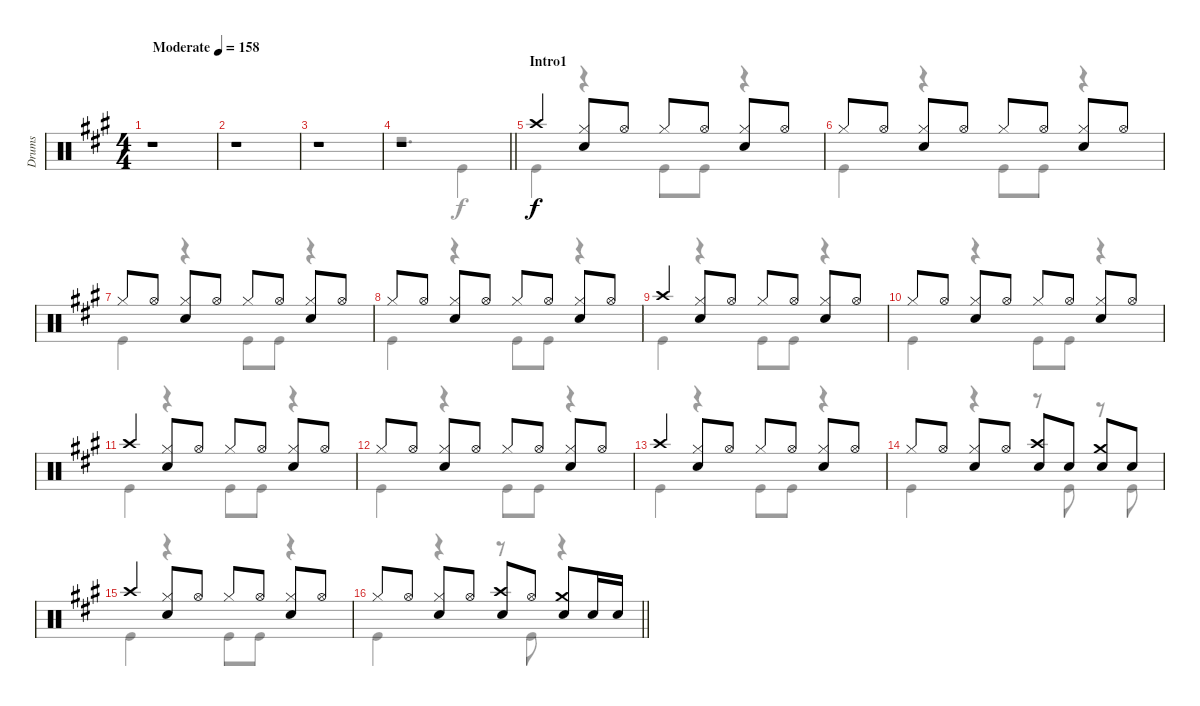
\track ("Drums" "Drums") {instrument percussion}
\staff {score}
\articulation defaults
\voice
\ts (4 4)
\tempo (158 "Moderate")
\clef neutral
\ks a
r.1{dy f} |
r.1 |
r.1 |
\barLineRight lightlight
r.1 |
\section ("" "Intro1")
"Crash high (hit)".4 ("Hi-Hat (closed)" "Snare (hit) 2").8 "Hi-Hat (open)".8 "Hi-Hat (closed)".8 "Hi-Hat (open)".8 ("Hi-Hat (closed)" "Snare (hit) 2").8 "Hi-Hat (open)".8 |
"Hi-Hat (closed)".8 "Hi-Hat (open)".8 ("Hi-Hat (closed)" "Snare (hit) 2").8 "Hi-Hat (open)".8 "Hi-Hat (closed)".8 "Hi-Hat (open)".8 ("Hi-Hat (closed)" "Snare (hit) 2").8 "Hi-Hat (open)".8 |
"Hi-Hat (closed)".8 "Hi-Hat (open)".8 ("Hi-Hat (closed)" "Snare (hit) 2").8 "Hi-Hat (open)".8 "Hi-Hat (closed)".8 "Hi-Hat (open)".8 ("Hi-Hat (closed)" "Snare (hit) 2").8 "Hi-Hat (open)".8 |
"Hi-Hat (closed)".8 "Hi-Hat (open)".8 ("Hi-Hat (closed)" "Snare (hit) 2").8 "Hi-Hat (open)".8 "Hi-Hat (closed)".8 "Hi-Hat (open)".8 ("Hi-Hat (closed)" "Snare (hit) 2").8 "Hi-Hat (open)".8 |
"Crash high (hit)".4 ("Hi-Hat (closed)" "Snare (hit) 2").8 "Hi-Hat (open)".8 "Hi-Hat (closed)".8 "Hi-Hat (open)".8 ("Hi-Hat (closed)" "Snare (hit) 2").8 "Hi-Hat (open)".8 |
"Hi-Hat (closed)".8 "Hi-Hat (open)".8 ("Hi-Hat (closed)" "Snare (hit) 2").8 "Hi-Hat (open)".8 "Hi-Hat (closed)".8 "Hi-Hat (open)".8 ("Hi-Hat (closed)" "Snare (hit) 2").8 "Hi-Hat (open)".8 |
"Crash high (hit)".4 ("Hi-Hat (closed)" "Snare (hit) 2").8 "Hi-Hat (open)".8 "Hi-Hat (closed)".8 "Hi-Hat (open)".8 ("Hi-Hat (closed)" "Snare (hit) 2").8 "Hi-Hat (open)".8 |
"Hi-Hat (closed)".8 "Hi-Hat (open)".8 ("Hi-Hat (closed)" "Snare (hit) 2").8 "Hi-Hat (open)".8 "Hi-Hat (closed)".8 "Hi-Hat (open)".8 ("Hi-Hat (closed)" "Snare (hit) 2").8 "Hi-Hat (open)".8 |
"Crash high (hit)".4 ("Hi-Hat (closed)" "Snare (hit) 2").8 "Hi-Hat (open)".8 "Hi-Hat (closed)".8 "Hi-Hat (open)".8 ("Hi-Hat (closed)" "Snare (hit) 2").8 "Hi-Hat (open)".8 |
"Hi-Hat (closed)".8 "Hi-Hat (open)".8 ("Hi-Hat (closed)" "Snare (hit) 2").8 "Hi-Hat (open)".8 ("Crash high (hit)" "Snare (hit) 2").8 "Snare (hit) 2".8 ("Crash medium (hit)" "Snare (hit) 2").8 "Snare (hit) 2".8 |
"Crash high (hit)".4 ("Hi-Hat (closed)" "Snare (hit) 2").8 "Hi-Hat (open)".8 "Hi-Hat (closed)".8 "Hi-Hat (open)".8 ("Hi-Hat (closed)" "Snare (hit) 2").8 "Hi-Hat (open)".8 |
\barLineRight lightlight "Hi-Hat (closed)".8 "Hi-Hat (open)".8
("Hi-Hat (closed)" "Snare (hit) 2").8 "Hi-Hat (open)".8 ("Crash high (hit)" "Snare (hit) 2").8 "Hi-Hat (open)".8 ("Crash medium (hit)" "Snare (hit) 2").8 "Snare (hit) 2".16 "Snare (hit) 2".16
\voice
\clef neutral
\ottava regular
\simile none
\ks a
r.1{dy f} |
r.1 |
r.1 |
\barLineRight lightlight
r.2{d} "Kick (hit)".4 |
"Kick (hit)".4 r.4 "Kick (hit)".8 "Kick (hit)".8 r.4 |
"Kick (hit)".4 r.4 "Kick (hit)".8 "Kick (hit)".8 r.4 |
"Kick (hit)".4 r.4 "Kick (hit)".8 "Kick (hit)".8 r.4 |
"Kick (hit)".4 r.4 "Kick (hit)".8 "Kick (hit)".8 r.4 |
"Kick (hit)".4 r.4 "Kick (hit)".8 "Kick (hit)".8 r.4 |
"Kick (hit)".4 r.4 "Kick (hit)".8 "Kick (hit)".8 r.4 |
"Kick (hit)".4 r.4 "Kick (hit)".8 "Kick (hit)".8 r.4 |
"Kick (hit)".4 r.4 "Kick (hit)".8 "Kick (hit)".8 r.4 |
"Kick (hit)".4 r.4 "Kick (hit)".8 "Kick (hit)".8 r.4 |
"Kick (hit)".4 r.4 r.8 "Kick (hit)".8 r.8 "Kick (hit)".8 |
"Kick (hit)".4 r.4 "Kick (hit)".8 "Kick (hit)".8 r.4 |
\barLineRight lightlight "Kick (hit)".4
r.4 r.8 "Kick (hit)".8 r.4
